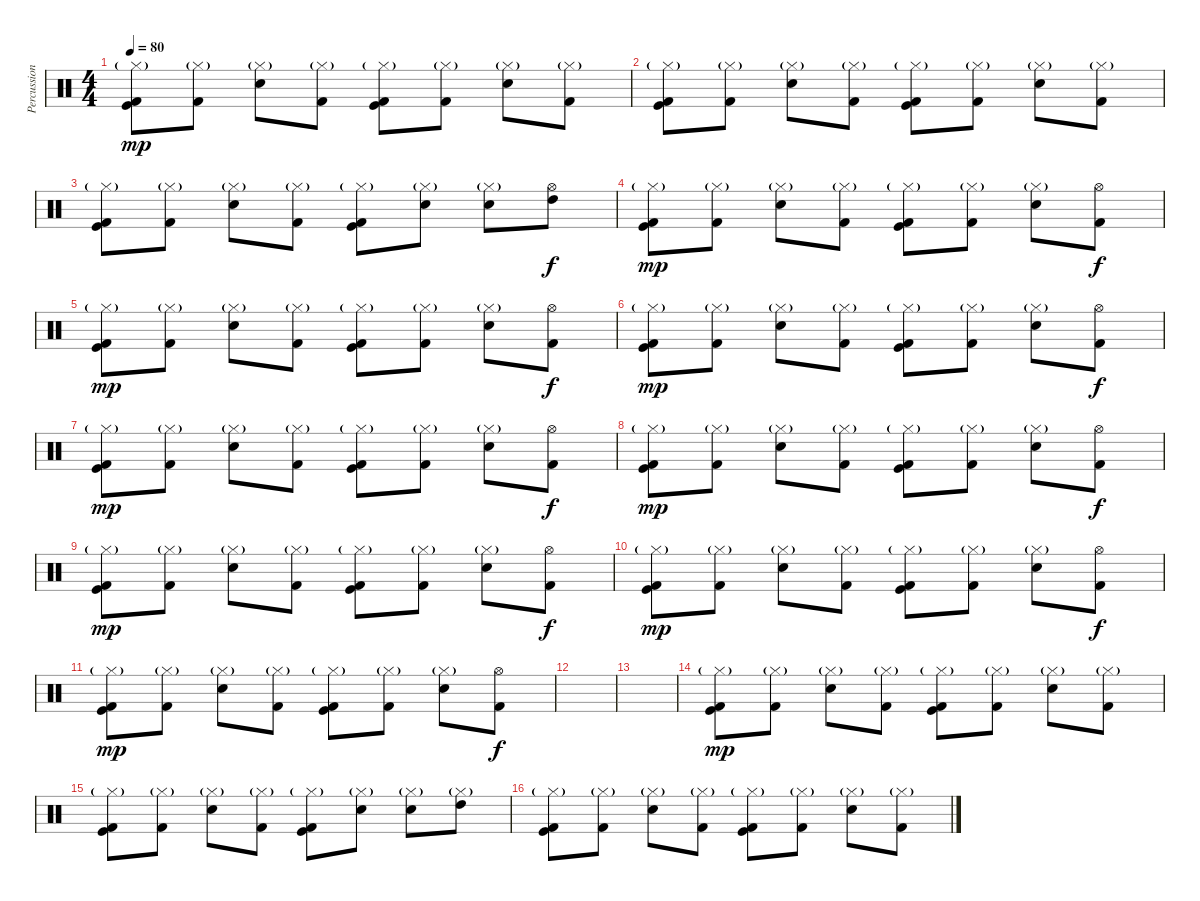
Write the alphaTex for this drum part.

\track ("Percussion" "Percussion") {instrument percussion}
\staff {score}
\articulation defaults
\ts (4 4)
\tempo 80
\clef neutral
\ks c
("Hi-Hat (closed)"{g} "Kick (hit) 2" "Kick (hit)").8{dy mp} ("Hi-Hat (closed)"{g} "Kick (hit) 2").8 ("Hi-Hat (closed)"{g} "Electric Snare (hit)").8 ("Hi-Hat (closed)"{g} "Kick (hit) 2").8 ("Hi-Hat (closed)"{g} "Kick (hit) 2" "Kick (hit)").8 ("Hi-Hat (closed)"{g} "Kick (hit) 2").8 ("Hi-Hat (closed)"{g} "Electric Snare (hit)").8 ("Hi-Hat (closed)"{g} "Kick (hit) 2").8 |
("Hi-Hat (closed)"{g} "Kick (hit) 2" "Kick (hit)").8 ("Hi-Hat (closed)"{g} "Kick (hit) 2").8 ("Hi-Hat (closed)"{g} "Electric Snare (hit)").8 ("Hi-Hat (closed)"{g} "Kick (hit) 2").8 ("Hi-Hat (closed)"{g} "Kick (hit) 2" "Kick (hit)").8 ("Hi-Hat (closed)"{g} "Kick (hit) 2").8 ("Hi-Hat (closed)"{g} "Electric Snare (hit)").8 ("Hi-Hat (closed)"{g} "Kick (hit) 2").8 |
("Hi-Hat (closed)"{g} "Kick (hit) 2" "Kick (hit)").8 ("Hi-Hat (closed)"{g} "Kick (hit) 2").8 ("Hi-Hat (closed)"{g} "Electric Snare (hit)").8 ("Hi-Hat (closed)"{g} "Kick (hit) 2").8 ("Hi-Hat (closed)"{g} "Kick (hit) 2" "Kick (hit)").8 ("Hi-Hat (closed)"{g} "Electric Snare (hit)").8 ("Hi-Hat (closed)"{g} "Snare (hit) 2").8 ("Hi-Hat (open)" "High Tom (hit)").8{dy f} |
("Hi-Hat (closed)"{g} "Kick (hit) 2" "Kick (hit)").8{dy mp} ("Hi-Hat (closed)"{g} "Kick (hit) 2").8 ("Hi-Hat (closed)"{g} "Electric Snare (hit)").8 ("Hi-Hat (closed)"{g} "Kick (hit) 2").8 ("Hi-Hat (closed)"{g} "Kick (hit) 2" "Kick (hit)").8 ("Hi-Hat (closed)"{g} "Kick (hit) 2").8 ("Hi-Hat (closed)"{g} "Electric Snare (hit)").8 ("Hi-Hat (open)" "Kick (hit) 2").8{dy f} |
("Hi-Hat (closed)"{g} "Kick (hit) 2" "Kick (hit)").8{dy mp} ("Hi-Hat (closed)"{g} "Kick (hit) 2").8 ("Hi-Hat (closed)"{g} "Electric Snare (hit)").8 ("Hi-Hat (closed)"{g} "Kick (hit) 2").8 ("Hi-Hat (closed)"{g} "Kick (hit) 2" "Kick (hit)").8 ("Hi-Hat (closed)"{g} "Kick (hit) 2").8 ("Hi-Hat (closed)"{g} "Electric Snare (hit)").8 ("Hi-Hat (open)" "Kick (hit) 2").8{dy f} |
("Hi-Hat (closed)"{g} "Kick (hit) 2" "Kick (hit)").8{dy mp} ("Hi-Hat (closed)"{g} "Kick (hit) 2").8 ("Hi-Hat (closed)"{g} "Electric Snare (hit)").8 ("Hi-Hat (closed)"{g} "Kick (hit) 2").8 ("Hi-Hat (closed)"{g} "Kick (hit) 2" "Kick (hit)").8 ("Hi-Hat (closed)"{g} "Kick (hit) 2").8 ("Hi-Hat (closed)"{g} "Electric Snare (hit)").8 ("Hi-Hat (open)" "Kick (hit) 2").8{dy f} |
("Hi-Hat (closed)"{g} "Kick (hit) 2" "Kick (hit)").8{dy mp} ("Hi-Hat (closed)"{g} "Kick (hit) 2").8 ("Hi-Hat (closed)"{g} "Electric Snare (hit)").8 ("Hi-Hat (closed)"{g} "Kick (hit) 2").8 ("Hi-Hat (closed)"{g} "Kick (hit) 2" "Kick (hit)").8 ("Hi-Hat (closed)"{g} "Kick (hit) 2").8 ("Hi-Hat (closed)"{g} "Electric Snare (hit)").8 ("Hi-Hat (open)" "Kick (hit) 2").8{dy f} |
("Hi-Hat (closed)"{g} "Kick (hit) 2" "Kick (hit)").8{dy mp} ("Hi-Hat (closed)"{g} "Kick (hit) 2").8 ("Hi-Hat (closed)"{g} "Electric Snare (hit)").8 ("Hi-Hat (closed)"{g} "Kick (hit) 2").8 ("Hi-Hat (closed)"{g} "Kick (hit) 2" "Kick (hit)").8 ("Hi-Hat (closed)"{g} "Kick (hit) 2").8 ("Hi-Hat (closed)"{g} "Electric Snare (hit)").8 ("Hi-Hat (open)" "Kick (hit) 2").8{dy f} |
("Hi-Hat (closed)"{g} "Kick (hit) 2" "Kick (hit)").8{dy mp} ("Hi-Hat (closed)"{g} "Kick (hit) 2").8 ("Hi-Hat (closed)"{g} "Electric Snare (hit)").8 ("Hi-Hat (closed)"{g} "Kick (hit) 2").8 ("Hi-Hat (closed)"{g} "Kick (hit) 2" "Kick (hit)").8 ("Hi-Hat (closed)"{g} "Kick (hit) 2").8 ("Hi-Hat (closed)"{g} "Electric Snare (hit)").8 ("Hi-Hat (open)" "Kick (hit) 2").8{dy f} |
("Hi-Hat (closed)"{g} "Kick (hit) 2" "Kick (hit)").8{dy mp} ("Hi-Hat (closed)"{g} "Kick (hit) 2").8 ("Hi-Hat (closed)"{g} "Electric Snare (hit)").8 ("Hi-Hat (closed)"{g} "Kick (hit) 2").8 ("Hi-Hat (closed)"{g} "Kick (hit) 2" "Kick (hit)").8 ("Hi-Hat (closed)"{g} "Kick (hit) 2").8 ("Hi-Hat (closed)"{g} "Electric Snare (hit)").8 ("Hi-Hat (open)" "Kick (hit) 2").8{dy f} |
("Hi-Hat (closed)"{g} "Kick (hit) 2" "Kick (hit)").8{dy mp} ("Hi-Hat (closed)"{g} "Kick (hit) 2").8 ("Hi-Hat (closed)"{g} "Electric Snare (hit)").8 ("Hi-Hat (closed)"{g} "Kick (hit) 2").8 ("Hi-Hat (closed)"{g} "Kick (hit) 2" "Kick (hit)").8 ("Hi-Hat (closed)"{g} "Kick (hit) 2").8 ("Hi-Hat (closed)"{g} "Electric Snare (hit)").8 ("Hi-Hat (open)" "Kick (hit) 2").8{dy f} |
|
|
("Hi-Hat (closed)"{g} "Kick (hit) 2" "Kick (hit)").8{dy mp} ("Hi-Hat (closed)"{g} "Kick (hit) 2").8 ("Hi-Hat (closed)"{g} "Electric Snare (hit)").8 ("Hi-Hat (closed)"{g} "Kick (hit) 2").8 ("Hi-Hat (closed)"{g} "Kick (hit) 2" "Kick (hit)").8 ("Hi-Hat (closed)"{g} "Kick (hit) 2").8 ("Hi-Hat (closed)"{g} "Electric Snare (hit)").8 ("Hi-Hat (closed)"{g} "Kick (hit) 2").8 |
("Hi-Hat (closed)"{g} "Kick (hit) 2" "Kick (hit)").8 ("Hi-Hat (closed)"{g} "Kick (hit) 2").8 ("Hi-Hat (closed)"{g} "Electric Snare (hit)").8 ("Hi-Hat (closed)"{g} "Kick (hit) 2").8 ("Hi-Hat (closed)"{g} "Kick (hit) 2" "Kick (hit)").8 ("Hi-Hat (closed)"{g} "Electric Snare (hit)").8 ("Hi-Hat (closed)"{g} "Snare (hit) 2").8 ("Hi-Hat (closed)"{g} "High Tom (hit)").8 |
("Hi-Hat (closed)"{g} "Kick (hit) 2" "Kick (hit)").8 ("Hi-Hat (closed)"{g} "Kick (hit) 2").8 ("Hi-Hat (closed)"{g} "Electric Snare (hit)").8 ("Hi-Hat (closed)"{g} "Kick (hit) 2").8 ("Hi-Hat (closed)"{g} "Kick (hit) 2" "Kick (hit)").8 ("Hi-Hat (closed)"{g} "Kick (hit) 2").8 ("Hi-Hat (closed)"{g} "Electric Snare (hit)").8 ("Hi-Hat (closed)"{g} "Kick (hit) 2").8
